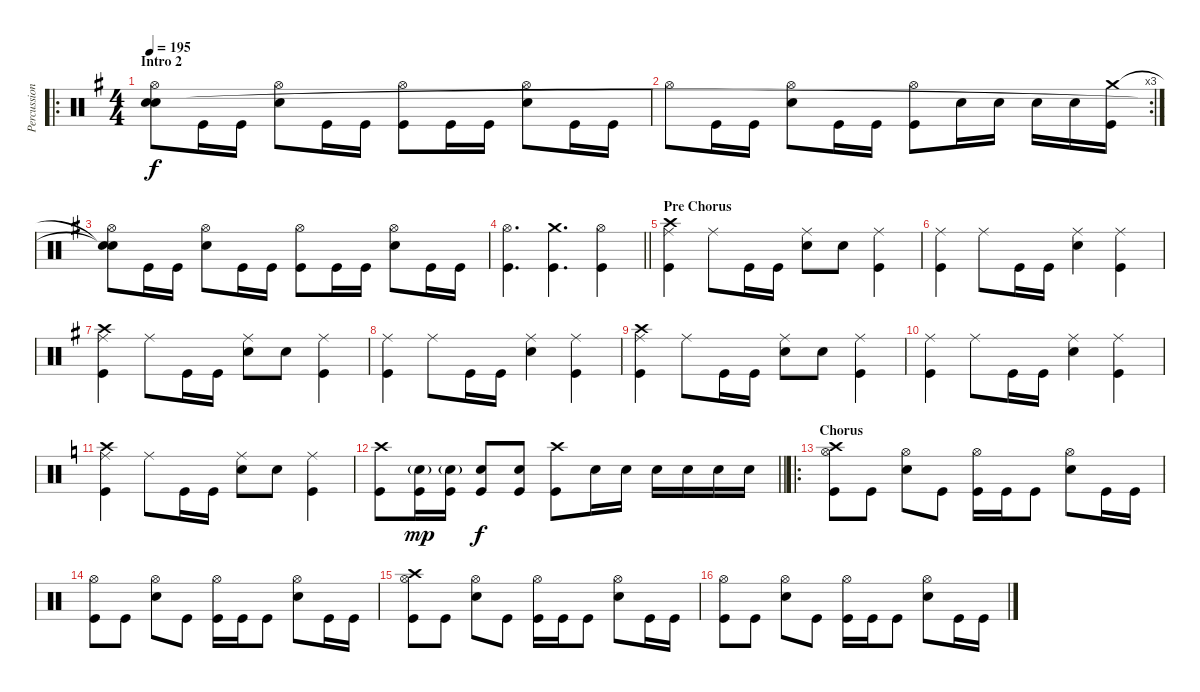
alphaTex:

\track ("Percussion" "Percussion") {instrument percussion}
\staff {score}
\articulation defaults
\ro
\ts (4 4)
\section ("" "Intro 2")
\tempo 195
\clef neutral
\ks g
("Snare (hit)"{t} "Hi-Hat (open)" "Snare (hit)"{t}).8{dy f} "Kick (hit)".16 "Kick (hit)".16 ("Hi-Hat (open)" "Electric Snare (hit)").8 "Kick (hit)".16 "Kick (hit)".16 ("Hi-Hat (open)" "Kick (hit)").8 "Kick (hit)".16 "Kick (hit)".16 ("Hi-Hat (open)" "Electric Snare (hit)").8 "Kick (hit)".16 "Kick (hit)".16 |
\rc 3 "Hi-Hat (open)".8 "Kick (hit)".16 "Kick (hit)".16
("Hi-Hat (open)" "Electric Snare (hit)").8 "Kick (hit)".16 "Kick (hit)".16 ("Hi-Hat (open)" "Kick (hit)").8 "Electric Snare (hit)".16 "Electric Snare (hit)".16 "Electric Snare (hit)".16 "Electric Snare (hit)".16 ("Crash medium (hit)" "Kick (hit)").16 |
("Snare (hit)"{t} "Hi-Hat (open)" "Snare (hit)"{t}).8 "Kick (hit)".16 "Kick (hit)".16 ("Hi-Hat (open)" "Electric Snare (hit)").8 "Kick (hit)".16 "Kick (hit)".16 ("Hi-Hat (open)" "Kick (hit)").8 "Kick (hit)".16 "Kick (hit)".16 ("Hi-Hat (open)" "Electric Snare (hit)").8 "Kick (hit)".16 "Kick (hit)".16 |
\barLineRight lightlight
("Hi-Hat (open)" "Kick (hit)").4{d} ("Crash medium (hit)" "Kick (hit)").4{d} ("Hi-Hat (open)" "Kick (hit)").4 |
\section ("" "Pre Chorus")
("Crash high (hit)" "Ride (middle)" "Kick (hit)").4 "Ride (middle)".8 "Kick (hit)".16 "Kick (hit)".16 ("Ride (middle)" "Electric Snare (hit)").8 "Electric Snare (hit)".8 ("Ride (middle)" "Kick (hit)").4 |
("Ride (middle)" "Kick (hit)").4 "Ride (middle)".8 "Kick (hit)".16 "Kick (hit)".16 ("Ride (middle)" "Electric Snare (hit)").4 ("Ride (middle)" "Kick (hit)").4 |
("Crash high (hit)" "Ride (middle)" "Kick (hit)").4 "Ride (middle)".8 "Kick (hit)".16 "Kick (hit)".16 ("Ride (middle)" "Electric Snare (hit)").8 "Electric Snare (hit)".8 ("Ride (middle)" "Kick (hit)").4 |
("Ride (middle)" "Kick (hit)").4 "Ride (middle)".8 "Kick (hit)".16 "Kick (hit)".16 ("Ride (middle)" "Electric Snare (hit)").4 ("Ride (middle)" "Kick (hit)").4 |
("Crash high (hit)" "Ride (middle)" "Kick (hit)").4 "Ride (middle)".8 "Kick (hit)".16 "Kick (hit)".16 ("Ride (middle)" "Electric Snare (hit)").8 "Electric Snare (hit)".8 ("Ride (middle)" "Kick (hit)").4 |
("Ride (middle)" "Kick (hit)").4 "Ride (middle)".8 "Kick (hit)".16 "Kick (hit)".16 ("Ride (middle)" "Electric Snare (hit)").4 ("Ride (middle)" "Kick (hit)").4 |
\ks c
("Crash high (hit)" "Ride (middle)" "Kick (hit)").4 "Ride (middle)".8 "Kick (hit)".16 "Kick (hit)".16 ("Ride (middle)" "Electric Snare (hit)").8 "Electric Snare (hit)".8 ("Ride (middle)" "Kick (hit)").4 |
\barLineRight lightlight
("Crash high (hit)" "Kick (hit)").8 ("Electric Snare (hit)"{g} "Kick (hit)").16{dy mp} ("Electric Snare (hit)"{g} "Kick (hit)").16 ("Electric Snare (hit)" "Kick (hit)").8{dy f} ("Electric Snare (hit)" "Kick (hit)").8 ("Crash high (hit)" "Kick (hit)").8 "Electric Snare (hit)".16 "Electric Snare (hit)".16 "Electric Snare (hit)".16 "Electric Snare (hit)".16 "Electric Snare (hit)".16 "Electric Snare (hit)".16 |
\ro
\section ("" "Chorus")
("Crash high (hit)" "Hi-Hat (open)" "Kick (hit)").8 "Kick (hit)".8 ("Hi-Hat (open)" "Electric Snare (hit)").8 "Kick (hit)".8 ("Hi-Hat (open)" "Kick (hit)").16 "Kick (hit)".16 "Kick (hit)".8 ("Hi-Hat (open)" "Electric Snare (hit)").8 "Kick (hit)".16 "Kick (hit)".16 |
("Hi-Hat (open)" "Kick (hit)").8 "Kick (hit)".8 ("Hi-Hat (open)" "Electric Snare (hit)").8 "Kick (hit)".8 ("Hi-Hat (open)" "Kick (hit)").16 "Kick (hit)".16 "Kick (hit)".8 ("Hi-Hat (open)" "Electric Snare (hit)").8 "Kick (hit)".16 "Kick (hit)".16 |
("Crash high (hit)" "Hi-Hat (open)" "Kick (hit)").8 "Kick (hit)".8 ("Hi-Hat (open)" "Electric Snare (hit)").8 "Kick (hit)".8 ("Hi-Hat (open)" "Kick (hit)").16 "Kick (hit)".16 "Kick (hit)".8 ("Hi-Hat (open)" "Electric Snare (hit)").8 "Kick (hit)".16 "Kick (hit)".16 |
("Hi-Hat (open)" "Kick (hit)").8 "Kick (hit)".8 ("Hi-Hat (open)" "Electric Snare (hit)").8 "Kick (hit)".8 ("Hi-Hat (open)" "Kick (hit)").16 "Kick (hit)".16 "Kick (hit)".8 ("Hi-Hat (open)" "Electric Snare (hit)").8 "Kick (hit)".16 "Kick (hit)".16
